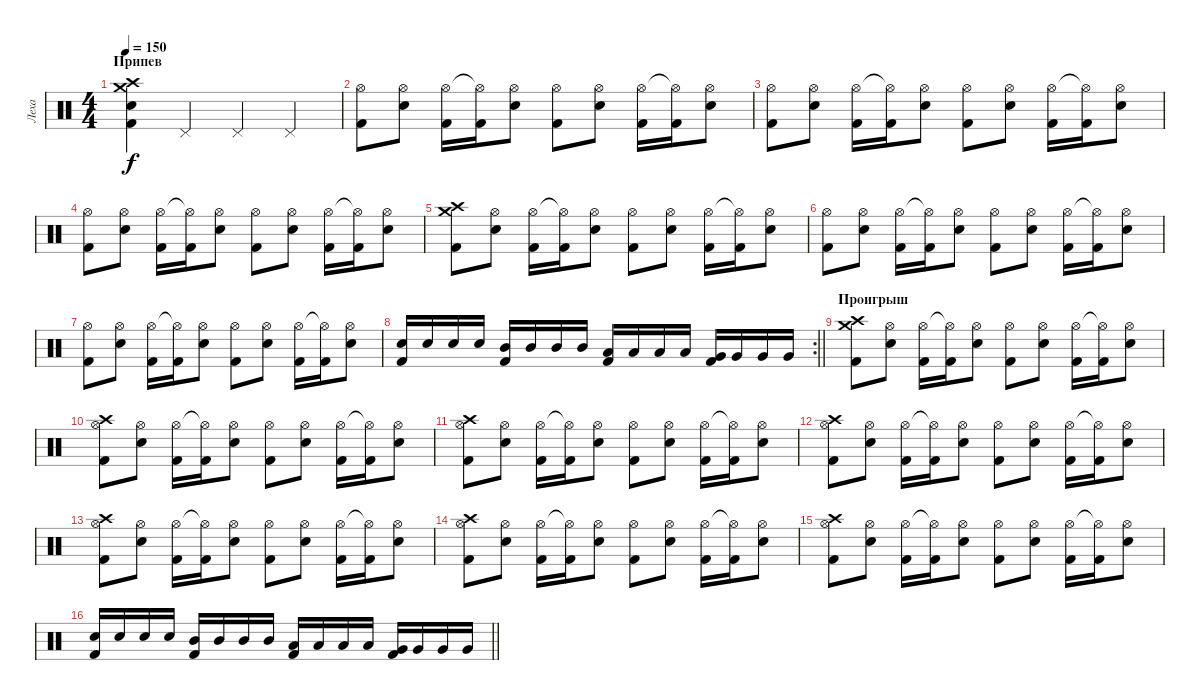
\track ("Леха" "Леха") {instrument percussion}
\staff {score}
\articulation defaults
\ts (4 4)
\section ("" "Припев")
\tempo 150
\clef neutral
\ks c
("Crash medium (hit)" "Crash high (hit)" "Kick (hit) 2" "Snare (hit) 2").4{dy f} "Pedal Hi-Hat (hit)".4 "Pedal Hi-Hat (hit)".4 "Pedal Hi-Hat (hit)".4 |
("Hi-Hat (open)" "Kick (hit) 2").8 ("Hi-Hat (open)" "Snare (hit) 2").8 ("Hi-Hat (open)" "Kick (hit) 2").16 ("Hi-Hat (open)"{t} "Kick (hit) 2").16 ("Hi-Hat (open)" "Snare (hit) 2").8 ("Hi-Hat (open)" "Kick (hit) 2").8 ("Hi-Hat (open)" "Snare (hit) 2").8 ("Hi-Hat (open)" "Kick (hit) 2").16 ("Hi-Hat (open)"{t} "Kick (hit) 2").16 ("Hi-Hat (open)" "Snare (hit) 2").8 |
("Hi-Hat (open)" "Kick (hit) 2").8 ("Hi-Hat (open)" "Snare (hit) 2").8 ("Hi-Hat (open)" "Kick (hit) 2").16 ("Hi-Hat (open)"{t} "Kick (hit) 2").16 ("Hi-Hat (open)" "Snare (hit) 2").8 ("Hi-Hat (open)" "Kick (hit) 2").8 ("Hi-Hat (open)" "Snare (hit) 2").8 ("Hi-Hat (open)" "Kick (hit) 2").16 ("Hi-Hat (open)"{t} "Kick (hit) 2").16 ("Hi-Hat (open)" "Snare (hit) 2").8 |
("Hi-Hat (open)" "Kick (hit) 2").8 ("Hi-Hat (open)" "Snare (hit) 2").8 ("Hi-Hat (open)" "Kick (hit) 2").16 ("Hi-Hat (open)"{t} "Kick (hit) 2").16 ("Hi-Hat (open)" "Snare (hit) 2").8 ("Hi-Hat (open)" "Kick (hit) 2").8 ("Hi-Hat (open)" "Snare (hit) 2").8 ("Hi-Hat (open)" "Kick (hit) 2").16 ("Hi-Hat (open)"{t} "Kick (hit) 2").16 ("Hi-Hat (open)" "Snare (hit) 2").8 |
("Crash medium (hit)" "Crash high (hit)" "Kick (hit) 2").8 ("Hi-Hat (open)" "Snare (hit) 2").8 ("Hi-Hat (open)" "Kick (hit) 2").16 ("Hi-Hat (open)"{t} "Kick (hit) 2").16 ("Hi-Hat (open)" "Snare (hit) 2").8 ("Hi-Hat (open)" "Kick (hit) 2").8 ("Hi-Hat (open)" "Snare (hit) 2").8 ("Hi-Hat (open)" "Kick (hit) 2").16 ("Hi-Hat (open)"{t} "Kick (hit) 2").16 ("Hi-Hat (open)" "Snare (hit) 2").8 |
("Hi-Hat (open)" "Kick (hit) 2").8 ("Hi-Hat (open)" "Snare (hit) 2").8 ("Hi-Hat (open)" "Kick (hit) 2").16 ("Hi-Hat (open)"{t} "Kick (hit) 2").16 ("Hi-Hat (open)" "Snare (hit) 2").8 ("Hi-Hat (open)" "Kick (hit) 2").8 ("Hi-Hat (open)" "Snare (hit) 2").8 ("Hi-Hat (open)" "Kick (hit) 2").16 ("Hi-Hat (open)"{t} "Kick (hit) 2").16 ("Hi-Hat (open)" "Snare (hit) 2").8 |
("Hi-Hat (open)" "Kick (hit) 2").8 ("Hi-Hat (open)" "Snare (hit) 2").8 ("Hi-Hat (open)" "Kick (hit) 2").16 ("Hi-Hat (open)"{t} "Kick (hit) 2").16 ("Hi-Hat (open)" "Snare (hit) 2").8 ("Hi-Hat (open)" "Kick (hit) 2").8 ("Hi-Hat (open)" "Snare (hit) 2").8 ("Hi-Hat (open)" "Kick (hit) 2").16 ("Hi-Hat (open)"{t} "Kick (hit) 2").16 ("Hi-Hat (open)" "Snare (hit) 2").8 |
\rc 2
\barLineRight lightlight
("Snare (hit) 2" "Kick (hit) 2").16 "Snare (hit) 2".16 "Snare (hit) 2".16 "Snare (hit) 2".16 ("Mid Tom (hit)" "Kick (hit) 2").16 "Mid Tom (hit)".16 "Mid Tom (hit)".16 "Mid Tom (hit)".16 ("Low Tom (hit)" "Kick (hit) 2").16 "Low Tom (hit)".16 "Low Tom (hit)".16 "Low Tom (hit)".16 ("Very Low Tom (hit)" "Kick (hit) 2").16 "Very Low Tom (hit)".16 "Very Low Tom (hit)".16 "Very Low Tom (hit)".16 |
\section ("" "Проигрыш")
("Crash medium (hit)" "Crash high (hit)" "Kick (hit) 2").8 ("Hi-Hat (open)" "Snare (hit) 2").8 ("Hi-Hat (open)" "Kick (hit) 2").16 ("Hi-Hat (open)"{t} "Kick (hit) 2").16 ("Hi-Hat (open)" "Snare (hit) 2").8 ("Hi-Hat (open)" "Kick (hit) 2").8 ("Hi-Hat (open)" "Snare (hit) 2").8 ("Hi-Hat (open)" "Kick (hit) 2").16 ("Hi-Hat (open)"{t} "Kick (hit) 2").16 ("Hi-Hat (open)" "Snare (hit) 2").8 |
("Hi-Hat (open)" "Crash high (hit)" "Kick (hit) 2").8 ("Hi-Hat (open)" "Snare (hit) 2").8 ("Hi-Hat (open)" "Kick (hit) 2").16 ("Hi-Hat (open)"{t} "Kick (hit) 2").16 ("Hi-Hat (open)" "Snare (hit) 2").8 ("Hi-Hat (open)" "Kick (hit) 2").8 ("Hi-Hat (open)" "Snare (hit) 2").8 ("Hi-Hat (open)" "Kick (hit) 2").16 ("Hi-Hat (open)"{t} "Kick (hit) 2").16 ("Hi-Hat (open)" "Snare (hit) 2").8 |
("Hi-Hat (open)" "Crash high (hit)" "Kick (hit) 2").8 ("Hi-Hat (open)" "Snare (hit) 2").8 ("Hi-Hat (open)" "Kick (hit) 2").16 ("Hi-Hat (open)"{t} "Kick (hit) 2").16 ("Hi-Hat (open)" "Snare (hit) 2").8 ("Hi-Hat (open)" "Kick (hit) 2").8 ("Hi-Hat (open)" "Snare (hit) 2").8 ("Hi-Hat (open)" "Kick (hit) 2").16 ("Hi-Hat (open)"{t} "Kick (hit) 2").16 ("Hi-Hat (open)" "Snare (hit) 2").8 |
("Hi-Hat (open)" "Crash high (hit)" "Kick (hit) 2").8 ("Hi-Hat (open)" "Snare (hit) 2").8 ("Hi-Hat (open)" "Kick (hit) 2").16 ("Hi-Hat (open)"{t} "Kick (hit) 2").16 ("Hi-Hat (open)" "Snare (hit) 2").8 ("Hi-Hat (open)" "Kick (hit) 2").8 ("Hi-Hat (open)" "Snare (hit) 2").8 ("Hi-Hat (open)" "Kick (hit) 2").16 ("Hi-Hat (open)"{t} "Kick (hit) 2").16 ("Hi-Hat (open)" "Snare (hit) 2").8 |
("Hi-Hat (open)" "Crash high (hit)" "Kick (hit) 2").8 ("Hi-Hat (open)" "Snare (hit) 2").8 ("Hi-Hat (open)" "Kick (hit) 2").16 ("Hi-Hat (open)"{t} "Kick (hit) 2").16 ("Hi-Hat (open)" "Snare (hit) 2").8 ("Hi-Hat (open)" "Kick (hit) 2").8 ("Hi-Hat (open)" "Snare (hit) 2").8 ("Hi-Hat (open)" "Kick (hit) 2").16 ("Hi-Hat (open)"{t} "Kick (hit) 2").16 ("Hi-Hat (open)" "Snare (hit) 2").8 |
("Hi-Hat (open)" "Crash high (hit)" "Kick (hit) 2").8 ("Hi-Hat (open)" "Snare (hit) 2").8 ("Hi-Hat (open)" "Kick (hit) 2").16 ("Hi-Hat (open)"{t} "Kick (hit) 2").16 ("Hi-Hat (open)" "Snare (hit) 2").8 ("Hi-Hat (open)" "Kick (hit) 2").8 ("Hi-Hat (open)" "Snare (hit) 2").8 ("Hi-Hat (open)" "Kick (hit) 2").16 ("Hi-Hat (open)"{t} "Kick (hit) 2").16 ("Hi-Hat (open)" "Snare (hit) 2").8 |
("Hi-Hat (open)" "Crash high (hit)" "Kick (hit) 2").8 ("Hi-Hat (open)" "Snare (hit) 2").8 ("Hi-Hat (open)" "Kick (hit) 2").16 ("Hi-Hat (open)"{t} "Kick (hit) 2").16 ("Hi-Hat (open)" "Snare (hit) 2").8 ("Hi-Hat (open)" "Kick (hit) 2").8 ("Hi-Hat (open)" "Snare (hit) 2").8 ("Hi-Hat (open)" "Kick (hit) 2").16 ("Hi-Hat (open)"{t} "Kick (hit) 2").16 ("Hi-Hat (open)" "Snare (hit) 2").8 |
\barLineRight lightlight
("Snare (hit) 2" "Kick (hit) 2").16 "Snare (hit) 2".16 "Snare (hit) 2".16 "Snare (hit) 2".16 ("Mid Tom (hit)" "Kick (hit) 2").16 "Mid Tom (hit)".16 "Mid Tom (hit)".16 "Mid Tom (hit)".16 ("Low Tom (hit)" "Kick (hit) 2").16 "Low Tom (hit)".16 "Low Tom (hit)".16 "Low Tom (hit)".16 ("Very Low Tom (hit)" "Kick (hit) 2").16 "Very Low Tom (hit)".16 "Very Low Tom (hit)".16 "Very Low Tom (hit)".16
